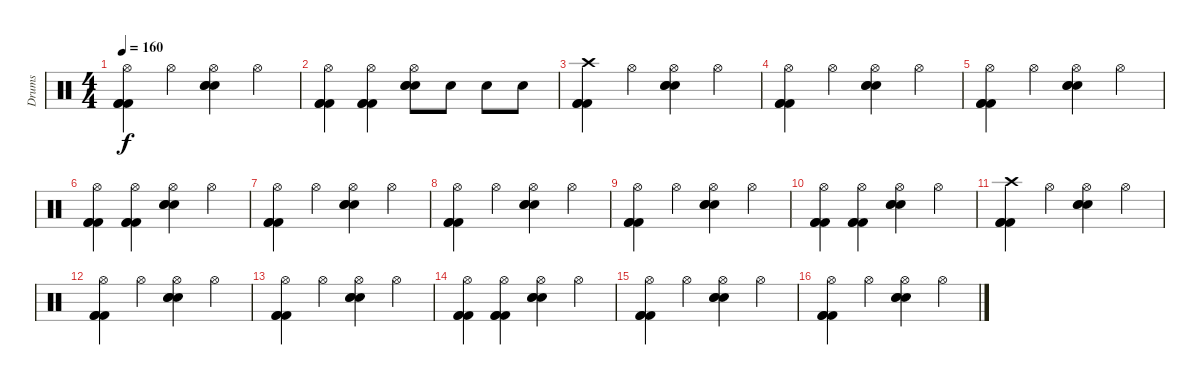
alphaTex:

\track ("Drums" "Drums") {instrument percussion}
\staff {score}
\articulation defaults
\ts (4 4)
\tempo 160
\clef neutral
\ks c
("Hi-Hat (open)" "Kick (hit) 2" "Kick (hit) 2" "Kick (hit) 2").4{dy f} "Hi-Hat (open)".4 ("Hi-Hat (open)" "Electric Snare (hit)" "Electric Snare (hit)" "Electric Snare (hit)").4 "Hi-Hat (open)".4 |
("Hi-Hat (open)" "Kick (hit) 2" "Kick (hit) 2" "Kick (hit) 2").4 ("Hi-Hat (open)" "Kick (hit) 2" "Kick (hit) 2" "Kick (hit) 2").4 ("Hi-Hat (open)" "Electric Snare (hit)" "Electric Snare (hit)" "Electric Snare (hit)").8 "Electric Snare (hit)".8 "Electric Snare (hit)".8 "Electric Snare (hit)".8 |
("Crash high (hit)" "Kick (hit) 2" "Kick (hit) 2" "Kick (hit) 2").4 "Hi-Hat (open)".4 ("Hi-Hat (open)" "Electric Snare (hit)" "Electric Snare (hit)" "Electric Snare (hit)").4 "Hi-Hat (open)".4 |
("Hi-Hat (open)" "Kick (hit) 2" "Kick (hit) 2" "Kick (hit) 2").4 "Hi-Hat (open)".4 ("Hi-Hat (open)" "Electric Snare (hit)" "Electric Snare (hit)" "Electric Snare (hit)").4 "Hi-Hat (open)".4 |
("Hi-Hat (open)" "Kick (hit) 2" "Kick (hit) 2" "Kick (hit) 2").4 "Hi-Hat (open)".4 ("Hi-Hat (open)" "Electric Snare (hit)" "Electric Snare (hit)" "Electric Snare (hit)").4 "Hi-Hat (open)".4 |
("Hi-Hat (open)" "Kick (hit) 2" "Kick (hit) 2" "Kick (hit) 2").4 ("Hi-Hat (open)" "Kick (hit) 2" "Kick (hit) 2" "Kick (hit) 2").4 ("Hi-Hat (open)" "Electric Snare (hit)" "Electric Snare (hit)" "Electric Snare (hit)").4 "Hi-Hat (open)".4 |
("Hi-Hat (open)" "Kick (hit) 2" "Kick (hit) 2" "Kick (hit) 2").4 "Hi-Hat (open)".4 ("Hi-Hat (open)" "Electric Snare (hit)" "Electric Snare (hit)" "Electric Snare (hit)").4 "Hi-Hat (open)".4 |
("Hi-Hat (open)" "Kick (hit) 2" "Kick (hit) 2" "Kick (hit) 2").4 "Hi-Hat (open)".4 ("Hi-Hat (open)" "Electric Snare (hit)" "Electric Snare (hit)" "Electric Snare (hit)").4 "Hi-Hat (open)".4 |
("Hi-Hat (open)" "Kick (hit) 2" "Kick (hit) 2" "Kick (hit) 2").4 "Hi-Hat (open)".4 ("Hi-Hat (open)" "Electric Snare (hit)" "Electric Snare (hit)" "Electric Snare (hit)").4 "Hi-Hat (open)".4 |
("Hi-Hat (open)" "Kick (hit) 2" "Kick (hit) 2" "Kick (hit) 2").4 ("Hi-Hat (open)" "Kick (hit) 2" "Kick (hit) 2" "Kick (hit) 2").4 ("Hi-Hat (open)" "Electric Snare (hit)" "Electric Snare (hit)" "Electric Snare (hit)").4 "Hi-Hat (open)".4 |
("Crash high (hit)" "Kick (hit) 2" "Kick (hit) 2" "Kick (hit) 2").4 "Hi-Hat (open)".4 ("Hi-Hat (open)" "Electric Snare (hit)" "Electric Snare (hit)" "Electric Snare (hit)").4 "Hi-Hat (open)".4 |
("Hi-Hat (open)" "Kick (hit) 2" "Kick (hit) 2" "Kick (hit) 2").4 "Hi-Hat (open)".4 ("Hi-Hat (open)" "Electric Snare (hit)" "Electric Snare (hit)" "Electric Snare (hit)").4 "Hi-Hat (open)".4 |
("Hi-Hat (open)" "Kick (hit) 2" "Kick (hit) 2" "Kick (hit) 2").4 "Hi-Hat (open)".4 ("Hi-Hat (open)" "Electric Snare (hit)" "Electric Snare (hit)" "Electric Snare (hit)").4 "Hi-Hat (open)".4 |
("Hi-Hat (open)" "Kick (hit) 2" "Kick (hit) 2" "Kick (hit) 2").4 ("Hi-Hat (open)" "Kick (hit) 2" "Kick (hit) 2" "Kick (hit) 2").4 ("Hi-Hat (open)" "Electric Snare (hit)" "Electric Snare (hit)" "Electric Snare (hit)").4 "Hi-Hat (open)".4 |
("Hi-Hat (open)" "Kick (hit) 2" "Kick (hit) 2" "Kick (hit) 2").4 "Hi-Hat (open)".4 ("Hi-Hat (open)" "Electric Snare (hit)" "Electric Snare (hit)" "Electric Snare (hit)").4 "Hi-Hat (open)".4 |
("Hi-Hat (open)" "Kick (hit) 2" "Kick (hit) 2" "Kick (hit) 2").4 "Hi-Hat (open)".4 ("Hi-Hat (open)" "Electric Snare (hit)" "Electric Snare (hit)" "Electric Snare (hit)").4 "Hi-Hat (open)".4
